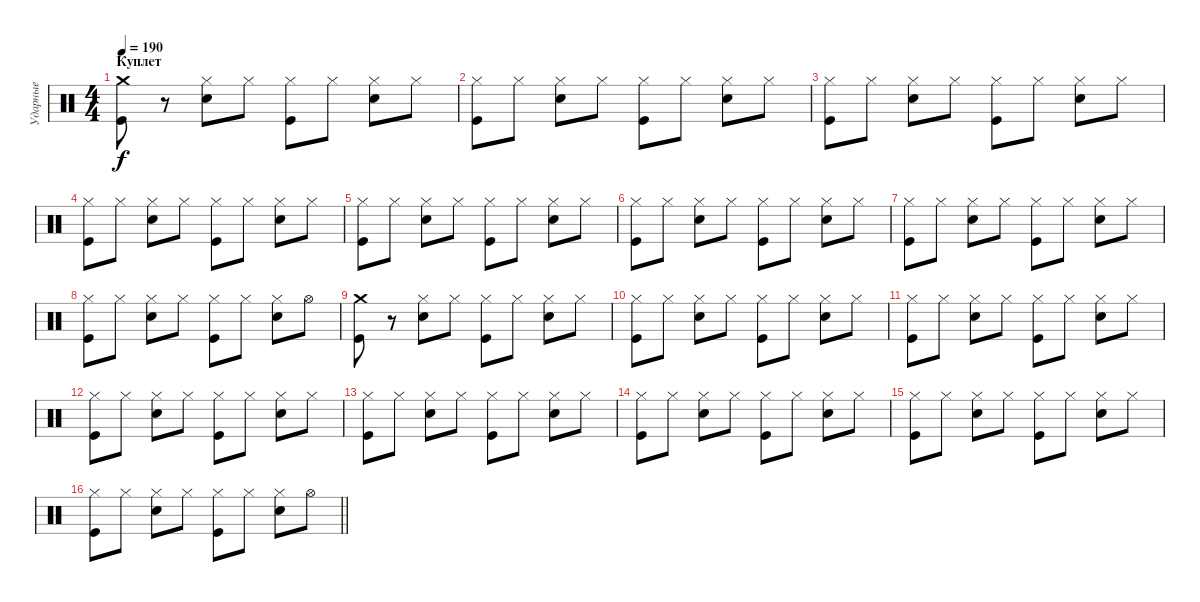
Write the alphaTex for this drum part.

\track ("Ударные" "Ударные") {instrument percussion}
\staff {score}
\articulation defaults
\ts (4 4)
\section ("" "Куплет")
\tempo 190
\clef neutral
\ks c
("Crash medium (hit)" "Kick (hit)").8{dy f} r.8 ("Hi-Hat (closed)" "Snare (hit) 2").8 "Hi-Hat (closed)".8 ("Hi-Hat (closed)" "Kick (hit)").8 "Hi-Hat (closed)".8 ("Hi-Hat (closed)" "Snare (hit) 2").8 "Hi-Hat (closed)".8 |
("Hi-Hat (closed)" "Kick (hit)").8 "Hi-Hat (closed)".8 ("Hi-Hat (closed)" "Snare (hit) 2").8 "Hi-Hat (closed)".8 ("Hi-Hat (closed)" "Kick (hit)").8 "Hi-Hat (closed)".8 ("Hi-Hat (closed)" "Snare (hit) 2").8 "Hi-Hat (closed)".8 |
("Hi-Hat (closed)" "Kick (hit)").8 "Hi-Hat (closed)".8 ("Hi-Hat (closed)" "Snare (hit) 2").8 "Hi-Hat (closed)".8 ("Hi-Hat (closed)" "Kick (hit)").8 "Hi-Hat (closed)".8 ("Hi-Hat (closed)" "Snare (hit) 2").8 "Hi-Hat (closed)".8 |
("Hi-Hat (closed)" "Kick (hit)").8 "Hi-Hat (closed)".8 ("Hi-Hat (closed)" "Snare (hit) 2").8 "Hi-Hat (closed)".8 ("Hi-Hat (closed)" "Kick (hit)").8 "Hi-Hat (closed)".8 ("Hi-Hat (closed)" "Snare (hit) 2").8 "Hi-Hat (closed)".8 |
("Hi-Hat (closed)" "Kick (hit)").8 "Hi-Hat (closed)".8 ("Hi-Hat (closed)" "Snare (hit) 2").8 "Hi-Hat (closed)".8 ("Hi-Hat (closed)" "Kick (hit)").8 "Hi-Hat (closed)".8 ("Hi-Hat (closed)" "Snare (hit) 2").8 "Hi-Hat (closed)".8 |
("Hi-Hat (closed)" "Kick (hit)").8 "Hi-Hat (closed)".8 ("Hi-Hat (closed)" "Snare (hit) 2").8 "Hi-Hat (closed)".8 ("Hi-Hat (closed)" "Kick (hit)").8 "Hi-Hat (closed)".8 ("Hi-Hat (closed)" "Snare (hit) 2").8 "Hi-Hat (closed)".8 |
("Hi-Hat (closed)" "Kick (hit)").8 "Hi-Hat (closed)".8 ("Hi-Hat (closed)" "Snare (hit) 2").8 "Hi-Hat (closed)".8 ("Hi-Hat (closed)" "Kick (hit)").8 "Hi-Hat (closed)".8 ("Hi-Hat (closed)" "Snare (hit) 2").8 "Hi-Hat (closed)".8 |
("Hi-Hat (closed)" "Kick (hit)").8 "Hi-Hat (closed)".8 ("Hi-Hat (closed)" "Snare (hit) 2").8 "Hi-Hat (closed)".8 ("Hi-Hat (closed)" "Kick (hit)").8 "Hi-Hat (closed)".8 ("Hi-Hat (closed)" "Snare (hit) 2").8 "Hi-Hat (open)".8 |
("Crash medium (hit)" "Kick (hit)").8 r.8 ("Hi-Hat (closed)" "Snare (hit) 2").8 "Hi-Hat (closed)".8 ("Hi-Hat (closed)" "Kick (hit)").8 "Hi-Hat (closed)".8 ("Hi-Hat (closed)" "Snare (hit) 2").8 "Hi-Hat (closed)".8 |
("Hi-Hat (closed)" "Kick (hit)").8 "Hi-Hat (closed)".8 ("Hi-Hat (closed)" "Snare (hit) 2").8 "Hi-Hat (closed)".8 ("Hi-Hat (closed)" "Kick (hit)").8 "Hi-Hat (closed)".8 ("Hi-Hat (closed)" "Snare (hit) 2").8 "Hi-Hat (closed)".8 |
("Hi-Hat (closed)" "Kick (hit)").8 "Hi-Hat (closed)".8 ("Hi-Hat (closed)" "Snare (hit) 2").8 "Hi-Hat (closed)".8 ("Hi-Hat (closed)" "Kick (hit)").8 "Hi-Hat (closed)".8 ("Hi-Hat (closed)" "Snare (hit) 2").8 "Hi-Hat (closed)".8 |
("Hi-Hat (closed)" "Kick (hit)").8 "Hi-Hat (closed)".8 ("Hi-Hat (closed)" "Snare (hit) 2").8 "Hi-Hat (closed)".8 ("Hi-Hat (closed)" "Kick (hit)").8 "Hi-Hat (closed)".8 ("Hi-Hat (closed)" "Snare (hit) 2").8 "Hi-Hat (closed)".8 |
("Hi-Hat (closed)" "Kick (hit)").8 "Hi-Hat (closed)".8 ("Hi-Hat (closed)" "Snare (hit) 2").8 "Hi-Hat (closed)".8 ("Hi-Hat (closed)" "Kick (hit)").8 "Hi-Hat (closed)".8 ("Hi-Hat (closed)" "Snare (hit) 2").8 "Hi-Hat (closed)".8 |
("Hi-Hat (closed)" "Kick (hit)").8 "Hi-Hat (closed)".8 ("Hi-Hat (closed)" "Snare (hit) 2").8 "Hi-Hat (closed)".8 ("Hi-Hat (closed)" "Kick (hit)").8 "Hi-Hat (closed)".8 ("Hi-Hat (closed)" "Snare (hit) 2").8 "Hi-Hat (closed)".8 |
("Hi-Hat (closed)" "Kick (hit)").8 "Hi-Hat (closed)".8 ("Hi-Hat (closed)" "Snare (hit) 2").8 "Hi-Hat (closed)".8 ("Hi-Hat (closed)" "Kick (hit)").8 "Hi-Hat (closed)".8 ("Hi-Hat (closed)" "Snare (hit) 2").8 "Hi-Hat (closed)".8 |
\barLineRight lightlight
("Hi-Hat (closed)" "Kick (hit)").8 "Hi-Hat (closed)".8 ("Hi-Hat (closed)" "Snare (hit) 2").8 "Hi-Hat (closed)".8 ("Hi-Hat (closed)" "Kick (hit)").8 "Hi-Hat (closed)".8 ("Hi-Hat (closed)" "Snare (hit) 2").8 "Hi-Hat (open)".8
